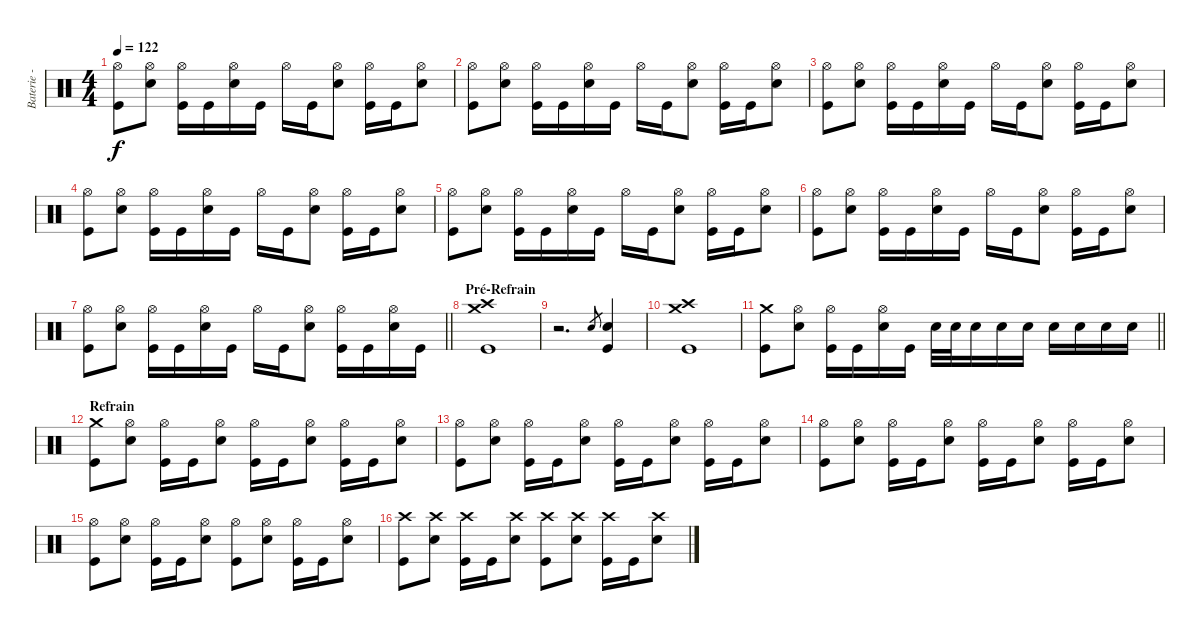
\track ("Baterie - Alex" "Baterie - ") {instrument percussion}
\staff {score}
\articulation defaults
\ts (4 4)
\tempo 122
\clef neutral
\ks c
("Hi-Hat (open)" "Kick (hit)").8{dy f} ("Hi-Hat (open)" "Electric Snare (hit)").8 ("Hi-Hat (open)" "Kick (hit)").16 "Kick (hit)".16 ("Hi-Hat (open)" "Electric Snare (hit)").16 "Kick (hit)".16 "Hi-Hat (open)".16 "Kick (hit)".16 ("Hi-Hat (open)" "Electric Snare (hit)").8 ("Hi-Hat (open)" "Kick (hit)").16 "Kick (hit)".16 ("Hi-Hat (open)" "Electric Snare (hit)").8 |
("Hi-Hat (open)" "Kick (hit)").8 ("Hi-Hat (open)" "Electric Snare (hit)").8 ("Hi-Hat (open)" "Kick (hit)").16 "Kick (hit)".16 ("Hi-Hat (open)" "Electric Snare (hit)").16 "Kick (hit)".16 "Hi-Hat (open)".16 "Kick (hit)".16 ("Hi-Hat (open)" "Electric Snare (hit)").8 ("Hi-Hat (open)" "Kick (hit)").16 "Kick (hit)".16 ("Hi-Hat (open)" "Electric Snare (hit)").8 |
("Hi-Hat (open)" "Kick (hit)").8 ("Hi-Hat (open)" "Electric Snare (hit)").8 ("Hi-Hat (open)" "Kick (hit)").16 "Kick (hit)".16 ("Hi-Hat (open)" "Electric Snare (hit)").16 "Kick (hit)".16 "Hi-Hat (open)".16 "Kick (hit)".16 ("Hi-Hat (open)" "Electric Snare (hit)").8 ("Hi-Hat (open)" "Kick (hit)").16 "Kick (hit)".16 ("Hi-Hat (open)" "Electric Snare (hit)").8 |
("Hi-Hat (open)" "Kick (hit)").8 ("Hi-Hat (open)" "Electric Snare (hit)").8 ("Hi-Hat (open)" "Kick (hit)").16 "Kick (hit)".16 ("Hi-Hat (open)" "Electric Snare (hit)").16 "Kick (hit)".16 "Hi-Hat (open)".16 "Kick (hit)".16 ("Hi-Hat (open)" "Electric Snare (hit)").8 ("Hi-Hat (open)" "Kick (hit)").16 "Kick (hit)".16 ("Hi-Hat (open)" "Electric Snare (hit)").8 |
("Hi-Hat (open)" "Kick (hit)").8 ("Hi-Hat (open)" "Electric Snare (hit)").8 ("Hi-Hat (open)" "Kick (hit)").16 "Kick (hit)".16 ("Hi-Hat (open)" "Electric Snare (hit)").16 "Kick (hit)".16 "Hi-Hat (open)".16 "Kick (hit)".16 ("Hi-Hat (open)" "Electric Snare (hit)").8 ("Hi-Hat (open)" "Kick (hit)").16 "Kick (hit)".16 ("Hi-Hat (open)" "Electric Snare (hit)").8 |
("Hi-Hat (open)" "Kick (hit)").8 ("Hi-Hat (open)" "Electric Snare (hit)").8 ("Hi-Hat (open)" "Kick (hit)").16 "Kick (hit)".16 ("Hi-Hat (open)" "Electric Snare (hit)").16 "Kick (hit)".16 "Hi-Hat (open)".16 "Kick (hit)".16 ("Hi-Hat (open)" "Electric Snare (hit)").8 ("Hi-Hat (open)" "Kick (hit)").16 "Kick (hit)".16 ("Hi-Hat (open)" "Electric Snare (hit)").8 |
\barLineRight lightlight
("Hi-Hat (open)" "Kick (hit)").8 ("Hi-Hat (open)" "Electric Snare (hit)").8 ("Hi-Hat (open)" "Kick (hit)").16 "Kick (hit)".16 ("Hi-Hat (open)" "Electric Snare (hit)").16 "Kick (hit)".16 "Hi-Hat (open)".16 "Kick (hit)".16 ("Hi-Hat (open)" "Electric Snare (hit)").8 ("Hi-Hat (open)" "Kick (hit)").16 "Kick (hit)".16 ("Hi-Hat (open)" "Electric Snare (hit)").16 "Kick (hit)".16 |
\section ("" "Pré-Refrain")
("Crash medium (hit)" "Crash high (hit)" "Kick (hit)").1 |
r.2{d} "Electric Snare (hit)".8{gr} ("Electric Snare (hit)" "Kick (hit)").4 |
("Crash medium (hit)" "Crash high (hit)" "Kick (hit)").1 |
\barLineRight lightlight
("Crash medium (hit)" "Kick (hit)").8 ("Hi-Hat (open)" "Electric Snare (hit)").8 ("Hi-Hat (open)" "Kick (hit)").16 "Kick (hit)".16 ("Hi-Hat (open)" "Electric Snare (hit)").16 "Kick (hit)".16 "Electric Snare (hit)".32 "Electric Snare (hit)".32 "Electric Snare (hit)".16 "Electric Snare (hit)".16 "Electric Snare (hit)".16 "Electric Snare (hit)".16 "Electric Snare (hit)".16 "Electric Snare (hit)".16 "Electric Snare (hit)".16 |
\section ("" "Refrain")
("Crash medium (hit)" "Kick (hit)").8 ("Hi-Hat (open)" "Electric Snare (hit)").8 ("Hi-Hat (open)" "Kick (hit)").16 "Kick (hit)".16 ("Hi-Hat (open)" "Electric Snare (hit)").8 ("Hi-Hat (open)" "Kick (hit)").16 "Kick (hit)".16 ("Hi-Hat (open)" "Electric Snare (hit)").8 ("Hi-Hat (open)" "Kick (hit)").16 "Kick (hit)".16 ("Hi-Hat (open)" "Electric Snare (hit)").8 |
("Hi-Hat (open)" "Kick (hit)").8 ("Hi-Hat (open)" "Electric Snare (hit)").8 ("Hi-Hat (open)" "Kick (hit)").16 "Kick (hit)".16 ("Hi-Hat (open)" "Electric Snare (hit)").8 ("Hi-Hat (open)" "Kick (hit)").16 "Kick (hit)".16 ("Hi-Hat (open)" "Electric Snare (hit)").8 ("Hi-Hat (open)" "Kick (hit)").16 "Kick (hit)".16 ("Hi-Hat (open)" "Electric Snare (hit)").8 |
("Hi-Hat (open)" "Kick (hit)").8 ("Hi-Hat (open)" "Electric Snare (hit)").8 ("Hi-Hat (open)" "Kick (hit)").16 "Kick (hit)".16 ("Hi-Hat (open)" "Electric Snare (hit)").8 ("Hi-Hat (open)" "Kick (hit)").16 "Kick (hit)".16 ("Hi-Hat (open)" "Electric Snare (hit)").8 ("Hi-Hat (open)" "Kick (hit)").16 "Kick (hit)".16 ("Hi-Hat (open)" "Electric Snare (hit)").8 |
("Hi-Hat (open)" "Kick (hit)").8 ("Hi-Hat (open)" "Electric Snare (hit)").8 ("Hi-Hat (open)" "Kick (hit)").16 "Kick (hit)".16 ("Hi-Hat (open)" "Electric Snare (hit)").8 ("Hi-Hat (open)" "Kick (hit)").8 ("Hi-Hat (open)" "Electric Snare (hit)").8 ("Hi-Hat (open)" "Kick (hit)").16 "Kick (hit)".16 ("Hi-Hat (open)" "Electric Snare (hit)").8 |
("Crash high (hit)" "Kick (hit)").8 ("Crash high (hit)" "Electric Snare (hit)").8 ("Crash high (hit)" "Kick (hit)").16 "Kick (hit)".16 ("Crash high (hit)" "Electric Snare (hit)").8 ("Crash high (hit)" "Kick (hit)").8 ("Crash high (hit)" "Electric Snare (hit)").8 ("Crash high (hit)" "Kick (hit)").16 "Kick (hit)".16 ("Crash high (hit)" "Electric Snare (hit)").8
